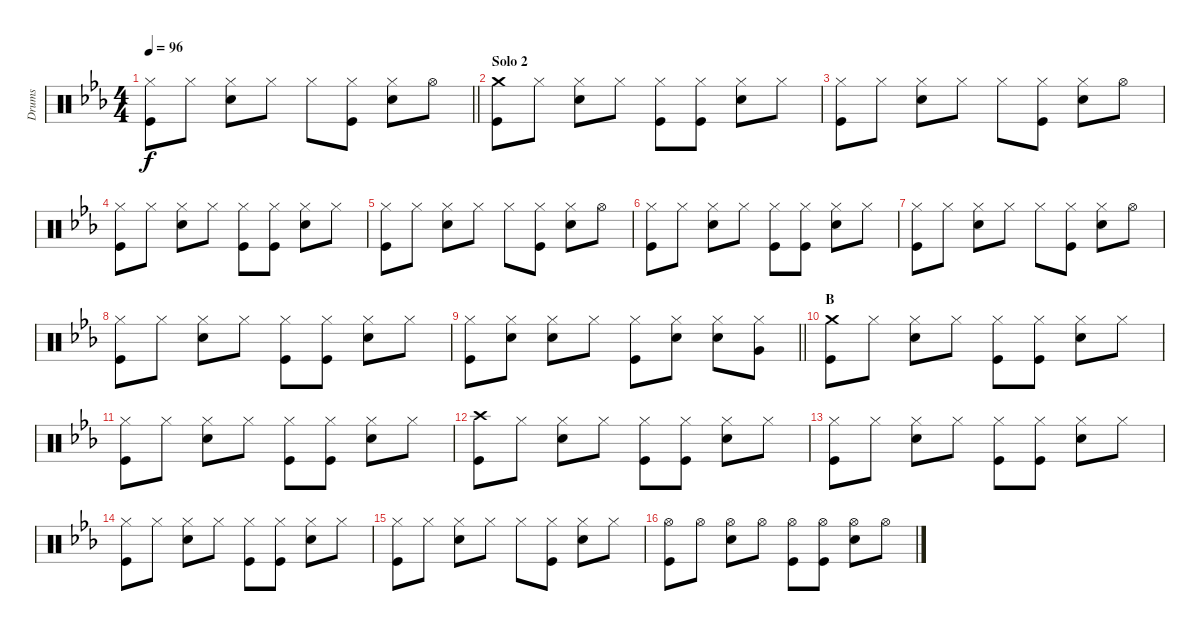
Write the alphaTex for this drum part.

\track ("Drums" "Drums") {instrument percussion}
\staff {score}
\articulation defaults
\ts (4 4)
\tempo 96
\clef neutral
\barLineRight lightlight
\ks cminor
("Hi-Hat (closed)" "Kick (hit)").8{dy f} "Hi-Hat (closed)".8 ("Hi-Hat (closed)" "Snare (hit) 2").8 "Hi-Hat (closed)".8 "Hi-Hat (closed)".8 ("Hi-Hat (closed)" "Kick (hit)").8 ("Hi-Hat (closed)" "Snare (hit) 2").8 "Hi-Hat (open)".8 |
\section ("" "Solo 2")
("Crash medium (hit)" "Kick (hit)").8 "Hi-Hat (closed)".8 ("Hi-Hat (closed)" "Snare (hit) 2").8 "Hi-Hat (closed)".8 ("Hi-Hat (closed)" "Kick (hit)").8 ("Hi-Hat (closed)" "Kick (hit)").8 ("Hi-Hat (closed)" "Snare (hit) 2").8 "Hi-Hat (closed)".8 |
("Hi-Hat (closed)" "Kick (hit)").8 "Hi-Hat (closed)".8 ("Hi-Hat (closed)" "Snare (hit) 2").8 "Hi-Hat (closed)".8 "Hi-Hat (closed)".8 ("Hi-Hat (closed)" "Kick (hit)").8 ("Hi-Hat (closed)" "Snare (hit) 2").8 "Hi-Hat (open)".8 |
("Hi-Hat (closed)" "Kick (hit)").8 "Hi-Hat (closed)".8 ("Hi-Hat (closed)" "Snare (hit) 2").8 "Hi-Hat (closed)".8 ("Hi-Hat (closed)" "Kick (hit)").8 ("Hi-Hat (closed)" "Kick (hit)").8 ("Hi-Hat (closed)" "Snare (hit) 2").8 "Hi-Hat (closed)".8 |
("Hi-Hat (closed)" "Kick (hit)").8 "Hi-Hat (closed)".8 ("Hi-Hat (closed)" "Snare (hit) 2").8 "Hi-Hat (closed)".8 "Hi-Hat (closed)".8 ("Hi-Hat (closed)" "Kick (hit)").8 ("Hi-Hat (closed)" "Snare (hit) 2").8 "Hi-Hat (open)".8 |
("Hi-Hat (closed)" "Kick (hit)").8 "Hi-Hat (closed)".8 ("Hi-Hat (closed)" "Snare (hit) 2").8 "Hi-Hat (closed)".8 ("Hi-Hat (closed)" "Kick (hit)").8 ("Hi-Hat (closed)" "Kick (hit)").8 ("Hi-Hat (closed)" "Snare (hit) 2").8 "Hi-Hat (closed)".8 |
("Hi-Hat (closed)" "Kick (hit)").8 "Hi-Hat (closed)".8 ("Hi-Hat (closed)" "Snare (hit) 2").8 "Hi-Hat (closed)".8 "Hi-Hat (closed)".8 ("Hi-Hat (closed)" "Kick (hit)").8 ("Hi-Hat (closed)" "Snare (hit) 2").8 "Hi-Hat (open)".8 |
("Hi-Hat (closed)" "Kick (hit)").8 "Hi-Hat (closed)".8 ("Hi-Hat (closed)" "Snare (hit) 2").8 "Hi-Hat (closed)".8 ("Hi-Hat (closed)" "Kick (hit)").8 ("Hi-Hat (closed)" "Kick (hit)").8 ("Hi-Hat (closed)" "Snare (hit) 2").8 "Hi-Hat (closed)".8 |
\barLineRight lightlight
("Hi-Hat (closed)" "Kick (hit)").8 ("Hi-Hat (closed)" "Snare (hit) 2").8 ("Hi-Hat (closed)" "Snare (hit) 2").8 "Hi-Hat (closed)".8 ("Hi-Hat (closed)" "Kick (hit)").8 ("Hi-Hat (closed)" "Snare (hit) 2").8 ("Hi-Hat (closed)" "Snare (hit) 2").8 ("Hi-Hat (closed)" "Very Low Tom (hit)").8 |
\section ("" "B")
("Crash medium (hit)" "Kick (hit)").8 "Hi-Hat (closed)".8 ("Hi-Hat (closed)" "Snare (hit) 2").8 "Hi-Hat (closed)".8 ("Hi-Hat (closed)" "Kick (hit)").8 ("Hi-Hat (closed)" "Kick (hit)").8 ("Hi-Hat (closed)" "Snare (hit) 2").8 "Hi-Hat (closed)".8 |
("Hi-Hat (closed)" "Kick (hit)").8 "Hi-Hat (closed)".8 ("Hi-Hat (closed)" "Snare (hit) 2").8 "Hi-Hat (closed)".8 ("Hi-Hat (closed)" "Kick (hit)").8 ("Hi-Hat (closed)" "Kick (hit)").8 ("Hi-Hat (closed)" "Snare (hit) 2").8 "Hi-Hat (closed)".8 |
("Crash high (hit)" "Kick (hit)").8 "Hi-Hat (closed)".8 ("Hi-Hat (closed)" "Snare (hit) 2").8 "Hi-Hat (closed)".8 ("Hi-Hat (closed)" "Kick (hit)").8 ("Hi-Hat (closed)" "Kick (hit)").8 ("Hi-Hat (closed)" "Snare (hit) 2").8 "Hi-Hat (closed)".8 |
("Hi-Hat (closed)" "Kick (hit)").8 "Hi-Hat (closed)".8 ("Hi-Hat (closed)" "Snare (hit) 2").8 "Hi-Hat (closed)".8 ("Hi-Hat (closed)" "Kick (hit)").8 ("Hi-Hat (closed)" "Kick (hit)").8 ("Hi-Hat (closed)" "Snare (hit) 2").8 "Hi-Hat (closed)".8 |
("Hi-Hat (closed)" "Kick (hit)").8 "Hi-Hat (closed)".8 ("Hi-Hat (closed)" "Snare (hit) 2").8 "Hi-Hat (closed)".8 ("Hi-Hat (closed)" "Kick (hit)").8 ("Hi-Hat (closed)" "Kick (hit)").8 ("Hi-Hat (closed)" "Snare (hit) 2").8 "Hi-Hat (closed)".8 |
("Hi-Hat (closed)" "Kick (hit)").8 "Hi-Hat (closed)".8 ("Hi-Hat (closed)" "Snare (hit) 2").8 "Hi-Hat (closed)".8 "Hi-Hat (closed)".8 ("Hi-Hat (closed)" "Kick (hit)").8 ("Hi-Hat (closed)" "Snare (hit) 2").8 "Hi-Hat (closed)".8 |
("Hi-Hat (open)" "Kick (hit)").8 "Hi-Hat (open)".8 ("Hi-Hat (open)" "Snare (hit) 2").8 "Hi-Hat (open)".8 ("Hi-Hat (open)" "Kick (hit)").8 ("Hi-Hat (open)" "Kick (hit)").8 ("Hi-Hat (open)" "Snare (hit) 2").8 "Hi-Hat (open)".8
